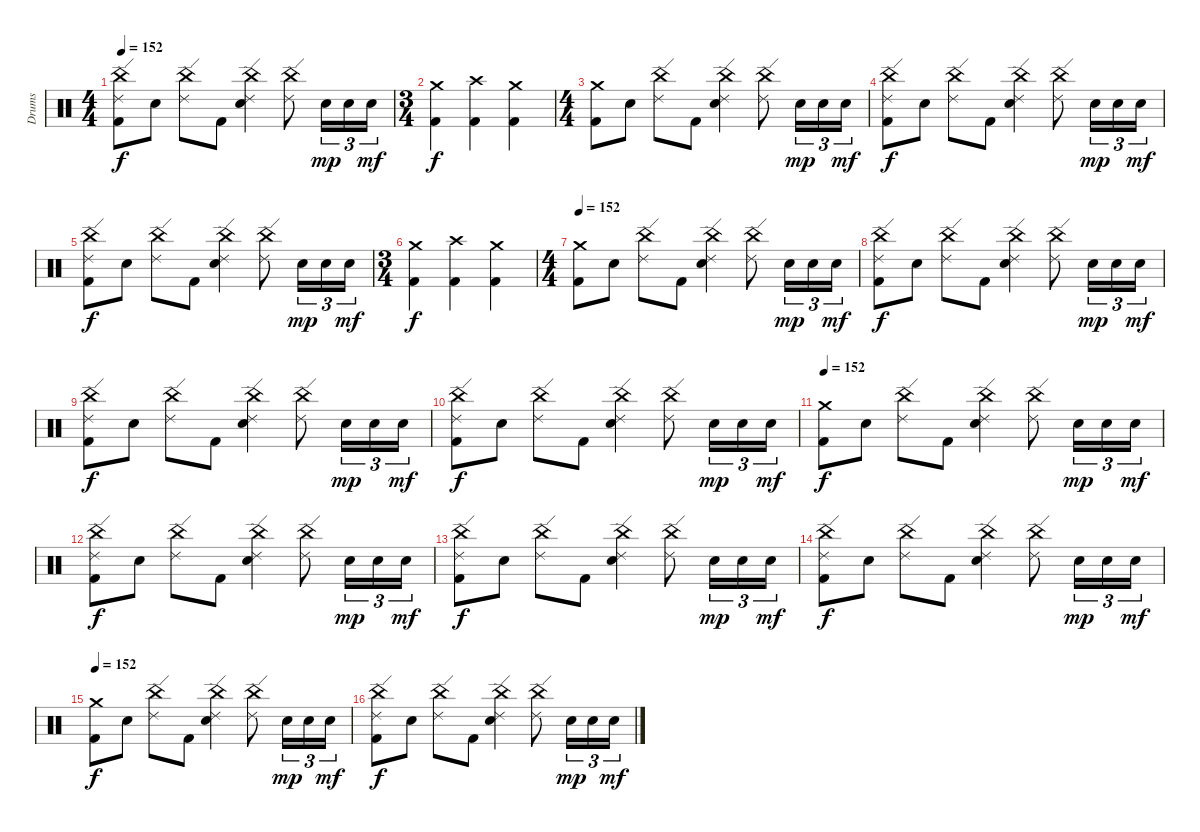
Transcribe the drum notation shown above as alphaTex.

\track ("Drums" "Drums") {instrument percussion}
\staff {score}
\articulation defaults
\ts (4 4)
\tempo 152
\clef neutral
\ks c
("China (hit)" "Ride (edge) 2" "Kick (hit) 2").8{dy f} "Snare (hit) 2".8 ("China (hit)" "Ride (edge) 2").8 "Kick (hit) 2".8 ("China (hit)" "Ride (edge) 2" "Snare (hit) 2").4 ("China (hit)" "Ride (edge) 2").8 "Snare (hit) 2".16{tu (3 2) dy mp} "Snare (hit) 2".16{tu (3 2)} "Snare (hit) 2".16{tu (3 2) dy mf} |
\ts (3 4)
("Crash medium (hit)" "Kick (hit) 2").4{dy f} ("Crash high (hit)" "Kick (hit) 2").4 ("Crash medium (hit)" "Kick (hit) 2").4 |
\ts (4 4)
("Crash medium (hit)" "Kick (hit) 2").8 "Snare (hit) 2".8 ("China (hit)" "Ride (edge) 2").8 "Kick (hit) 2".8 ("China (hit)" "Ride (edge) 2" "Snare (hit) 2").4 ("China (hit)" "Ride (edge) 2").8 "Snare (hit) 2".16{tu (3 2) dy mp} "Snare (hit) 2".16{tu (3 2)} "Snare (hit) 2".16{tu (3 2) dy mf} |
("China (hit)" "Ride (edge) 2" "Kick (hit) 2").8{dy f} "Snare (hit) 2".8 ("China (hit)" "Ride (edge) 2").8 "Kick (hit) 2".8 ("China (hit)" "Ride (edge) 2" "Snare (hit) 2").4 ("China (hit)" "Ride (edge) 2").8 "Snare (hit) 2".16{tu (3 2) dy mp} "Snare (hit) 2".16{tu (3 2)} "Snare (hit) 2".16{tu (3 2) dy mf} |
("China (hit)" "Ride (edge) 2" "Kick (hit) 2").8{dy f} "Snare (hit) 2".8 ("China (hit)" "Ride (edge) 2").8 "Kick (hit) 2".8 ("China (hit)" "Ride (edge) 2" "Snare (hit) 2").4 ("China (hit)" "Ride (edge) 2").8 "Snare (hit) 2".16{tu (3 2) dy mp} "Snare (hit) 2".16{tu (3 2)} "Snare (hit) 2".16{tu (3 2) dy mf} |
\ts (3 4)
("Crash medium (hit)" "Kick (hit) 2").4{dy f} ("Crash high (hit)" "Kick (hit) 2").4 ("Crash medium (hit)" "Kick (hit) 2").4 |
\ts (4 4)
\tempo 152
("Crash medium (hit)" "Kick (hit) 2").8 "Snare (hit) 2".8 ("China (hit)" "Ride (edge) 2").8 "Kick (hit) 2".8 ("China (hit)" "Ride (edge) 2" "Snare (hit) 2").4 ("China (hit)" "Ride (edge) 2").8 "Snare (hit) 2".16{tu (3 2) dy mp} "Snare (hit) 2".16{tu (3 2)} "Snare (hit) 2".16{tu (3 2) dy mf} |
("China (hit)" "Ride (edge) 2" "Kick (hit) 2").8{dy f} "Snare (hit) 2".8 ("China (hit)" "Ride (edge) 2").8 "Kick (hit) 2".8 ("China (hit)" "Ride (edge) 2" "Snare (hit) 2").4 ("China (hit)" "Ride (edge) 2").8 "Snare (hit) 2".16{tu (3 2) dy mp} "Snare (hit) 2".16{tu (3 2)} "Snare (hit) 2".16{tu (3 2) dy mf} |
("China (hit)" "Ride (edge) 2" "Kick (hit) 2").8{dy f} "Snare (hit) 2".8 ("China (hit)" "Ride (edge) 2").8 "Kick (hit) 2".8 ("China (hit)" "Ride (edge) 2" "Snare (hit) 2").4 ("China (hit)" "Ride (edge) 2").8 "Snare (hit) 2".16{tu (3 2) dy mp} "Snare (hit) 2".16{tu (3 2)} "Snare (hit) 2".16{tu (3 2) dy mf} |
("China (hit)" "Ride (edge) 2" "Kick (hit) 2").8{dy f} "Snare (hit) 2".8 ("China (hit)" "Ride (edge) 2").8 "Kick (hit) 2".8 ("China (hit)" "Ride (edge) 2" "Snare (hit) 2").4 ("China (hit)" "Ride (edge) 2").8 "Snare (hit) 2".16{tu (3 2) dy mp} "Snare (hit) 2".16{tu (3 2)} "Snare (hit) 2".16{tu (3 2) dy mf} |
\tempo 152
("Crash medium (hit)" "Kick (hit) 2").8{dy f} "Snare (hit) 2".8 ("China (hit)" "Ride (edge) 2").8 "Kick (hit) 2".8 ("China (hit)" "Ride (edge) 2" "Snare (hit) 2").4 ("China (hit)" "Ride (edge) 2").8 "Snare (hit) 2".16{tu (3 2) dy mp} "Snare (hit) 2".16{tu (3 2)} "Snare (hit) 2".16{tu (3 2) dy mf} |
("China (hit)" "Ride (edge) 2" "Kick (hit) 2").8{dy f} "Snare (hit) 2".8 ("China (hit)" "Ride (edge) 2").8 "Kick (hit) 2".8 ("China (hit)" "Ride (edge) 2" "Snare (hit) 2").4 ("China (hit)" "Ride (edge) 2").8 "Snare (hit) 2".16{tu (3 2) dy mp} "Snare (hit) 2".16{tu (3 2)} "Snare (hit) 2".16{tu (3 2) dy mf} |
("China (hit)" "Ride (edge) 2" "Kick (hit) 2").8{dy f} "Snare (hit) 2".8 ("China (hit)" "Ride (edge) 2").8 "Kick (hit) 2".8 ("China (hit)" "Ride (edge) 2" "Snare (hit) 2").4 ("China (hit)" "Ride (edge) 2").8 "Snare (hit) 2".16{tu (3 2) dy mp} "Snare (hit) 2".16{tu (3 2)} "Snare (hit) 2".16{tu (3 2) dy mf} |
("China (hit)" "Ride (edge) 2" "Kick (hit) 2").8{dy f} "Snare (hit) 2".8 ("China (hit)" "Ride (edge) 2").8 "Kick (hit) 2".8 ("China (hit)" "Ride (edge) 2" "Snare (hit) 2").4 ("China (hit)" "Ride (edge) 2").8 "Snare (hit) 2".16{tu (3 2) dy mp} "Snare (hit) 2".16{tu (3 2)} "Snare (hit) 2".16{tu (3 2) dy mf} |
\tempo 152
("Crash medium (hit)" "Kick (hit) 2").8{dy f} "Snare (hit) 2".8 ("China (hit)" "Ride (edge) 2").8 "Kick (hit) 2".8 ("China (hit)" "Ride (edge) 2" "Snare (hit) 2").4 ("China (hit)" "Ride (edge) 2").8 "Snare (hit) 2".16{tu (3 2) dy mp} "Snare (hit) 2".16{tu (3 2)} "Snare (hit) 2".16{tu (3 2) dy mf} |
("China (hit)" "Ride (edge) 2" "Kick (hit) 2").8{dy f} "Snare (hit) 2".8 ("China (hit)" "Ride (edge) 2").8 "Kick (hit) 2".8 ("China (hit)" "Ride (edge) 2" "Snare (hit) 2").4 ("China (hit)" "Ride (edge) 2").8 "Snare (hit) 2".16{tu (3 2) dy mp} "Snare (hit) 2".16{tu (3 2)} "Snare (hit) 2".16{tu (3 2) dy mf}
